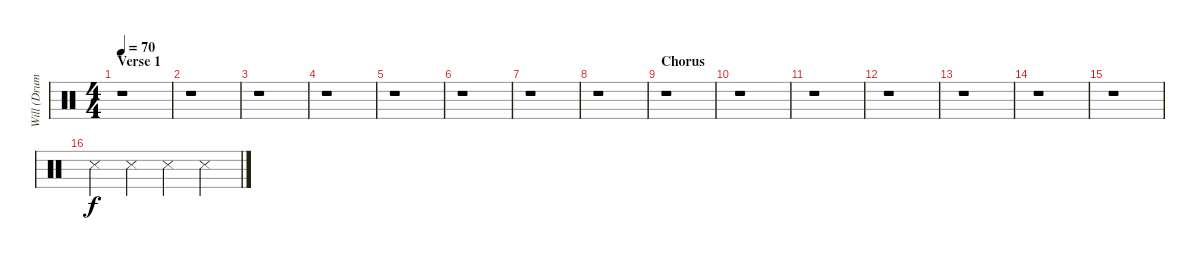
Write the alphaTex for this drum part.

\track ("Will (Drums)" "Will (Drum") {instrument percussion}
\staff {score}
\articulation defaults
\ts (4 4)
\section ("" "Verse 1")
\tempo 70
\clef neutral
\ks c
r.1{dy f} |
r.1 |
r.1 |
r.1 |
r.1 |
r.1 |
r.1 |
r.1 |
\section ("" "Chorus")
r.1 |
r.1 |
r.1 |
r.1 |
r.1 |
r.1 |
r.1 |
"Snare (side stick) 3".4 "Snare (side stick) 3".4 "Snare (side stick) 3".4 "Snare (side stick) 3".4
